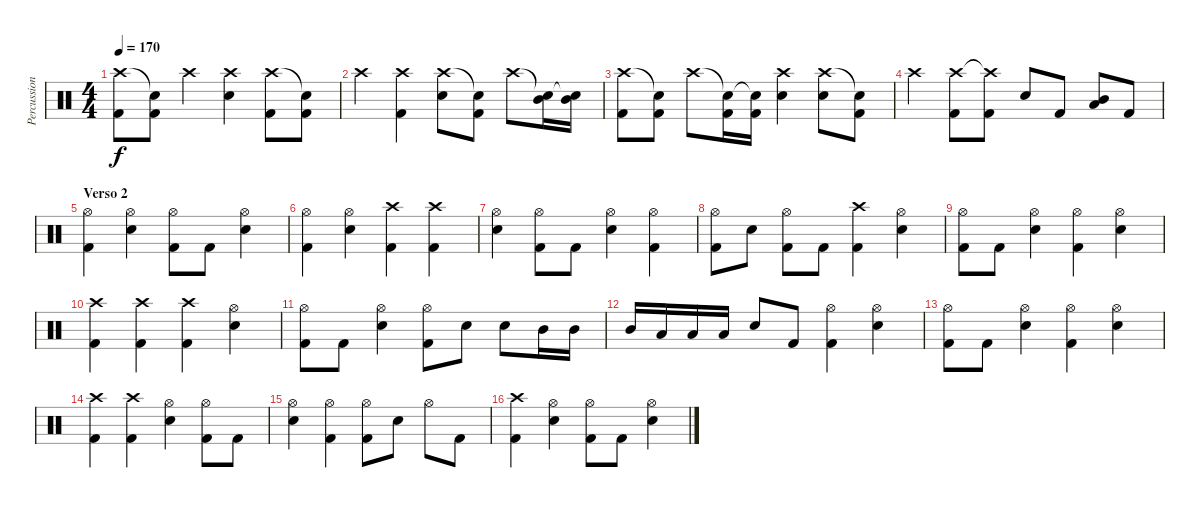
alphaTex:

\track ("Percussion" "Percussion") {instrument percussion}
\staff {score}
\articulation defaults
\ts (4 4)
\tempo 170
\clef neutral
\ks c
("Crash high (hit)" "Kick (hit) 2").8{dy f} ("Snare (hit)"{t} "Kick (hit) 2").8 "Crash high (hit)".4 ("Crash high (hit)" "Electric Snare (hit)").4 ("Crash high (hit)" "Kick (hit) 2").8 ("Snare (hit)"{t} "Kick (hit) 2").8 |
"Crash high (hit)".4 ("Crash high (hit)" "Kick (hit) 2").4 ("Crash high (hit)" "Electric Snare (hit)").8 ("Snare (hit)"{t} "Kick (hit) 2").8 "Crash high (hit)".8 ("Snare (hit)"{t} "Mid Tom (hit)").16 ("Snare (hit)"{t} "Mid Tom (hit)").16 |
("Crash high (hit)" "Kick (hit) 2").8 ("Snare (hit)"{t} "Kick (hit) 2").8 "Crash high (hit)".8 ("Snare (hit)"{t} "Kick (hit) 2").16 ("Snare (hit)"{t} "Kick (hit) 2").16 ("Crash high (hit)" "Electric Snare (hit)").4 ("Crash high (hit)" "Electric Snare (hit)").8 ("Snare (hit)"{t} "Kick (hit) 2").8 |
"Crash high (hit)".4 ("Crash high (hit)" "Kick (hit) 2").8 ("Crash high (hit)"{t} "Kick (hit) 2").8 "Electric Snare (hit)".8 "Kick (hit) 2".8 ("Mid Tom (hit)" "Low Tom (hit)").8 "Kick (hit) 2".8 |
\section ("" "Verso 2")
("Hi-Hat (open)" "Kick (hit) 2").4 ("Hi-Hat (open)" "Electric Snare (hit)").4 ("Hi-Hat (open)" "Kick (hit) 2").8 "Kick (hit) 2".8 ("Hi-Hat (open)" "Electric Snare (hit)").4 |
("Hi-Hat (open)" "Kick (hit) 2").4 ("Hi-Hat (open)" "Electric Snare (hit)").4 ("Crash high (hit)" "Kick (hit) 2").4 ("Crash high (hit)" "Kick (hit) 2").4 |
("Hi-Hat (open)" "Electric Snare (hit)").4 ("Hi-Hat (open)" "Kick (hit) 2").8 "Kick (hit) 2".8 ("Hi-Hat (open)" "Electric Snare (hit)").4 ("Hi-Hat (open)" "Kick (hit) 2").4 |
("Hi-Hat (open)" "Kick (hit) 2").8 "Electric Snare (hit)".8 ("Hi-Hat (open)" "Kick (hit) 2").8 "Kick (hit) 2".8 ("Crash high (hit)" "Kick (hit) 2").4 ("Hi-Hat (open)" "Electric Snare (hit)").4 |
("Hi-Hat (open)" "Kick (hit) 2").8 "Kick (hit) 2".8 ("Hi-Hat (open)" "Electric Snare (hit)").4 ("Hi-Hat (open)" "Kick (hit) 2").4 ("Hi-Hat (open)" "Electric Snare (hit)").4 |
("Crash high (hit)" "Kick (hit) 2").4 ("Crash high (hit)" "Kick (hit) 2").4 ("Crash high (hit)" "Kick (hit) 2").4 ("Hi-Hat (open)" "Electric Snare (hit)").4 |
("Hi-Hat (open)" "Kick (hit) 2").8 "Kick (hit) 2".8 ("Hi-Hat (open)" "Electric Snare (hit)").4 ("Hi-Hat (open)" "Kick (hit) 2").8 "Electric Snare (hit)".8 "Electric Snare (hit)".8 "Mid Tom (hit)".16 "Mid Tom (hit)".16 |
"Mid Tom (hit)".16 "Low Tom (hit)".16 "Low Tom (hit)".16 "Low Tom (hit)".16 "Electric Snare (hit)".8 "Kick (hit) 2".8 ("Hi-Hat (open)" "Kick (hit) 2").4 ("Hi-Hat (open)" "Electric Snare (hit)").4 |
("Hi-Hat (open)" "Kick (hit) 2").8 "Kick (hit) 2".8 ("Hi-Hat (open)" "Electric Snare (hit)").4 ("Hi-Hat (open)" "Kick (hit) 2").4 ("Hi-Hat (open)" "Electric Snare (hit)").4 |
("Crash high (hit)" "Kick (hit) 2").4 ("Crash high (hit)" "Kick (hit) 2").4 ("Hi-Hat (open)" "Electric Snare (hit)").4 ("Hi-Hat (open)" "Kick (hit) 2").8 "Kick (hit) 2".8 |
("Hi-Hat (open)" "Electric Snare (hit)").4 ("Hi-Hat (open)" "Kick (hit) 2").4 ("Hi-Hat (open)" "Kick (hit) 2").8 "Electric Snare (hit)".8 "Hi-Hat (open)".8 "Kick (hit) 2".8 |
("Crash high (hit)" "Kick (hit) 2").4 ("Hi-Hat (open)" "Electric Snare (hit)").4 ("Hi-Hat (open)" "Kick (hit) 2").8 "Kick (hit) 2".8 ("Hi-Hat (open)" "Electric Snare (hit)").4
